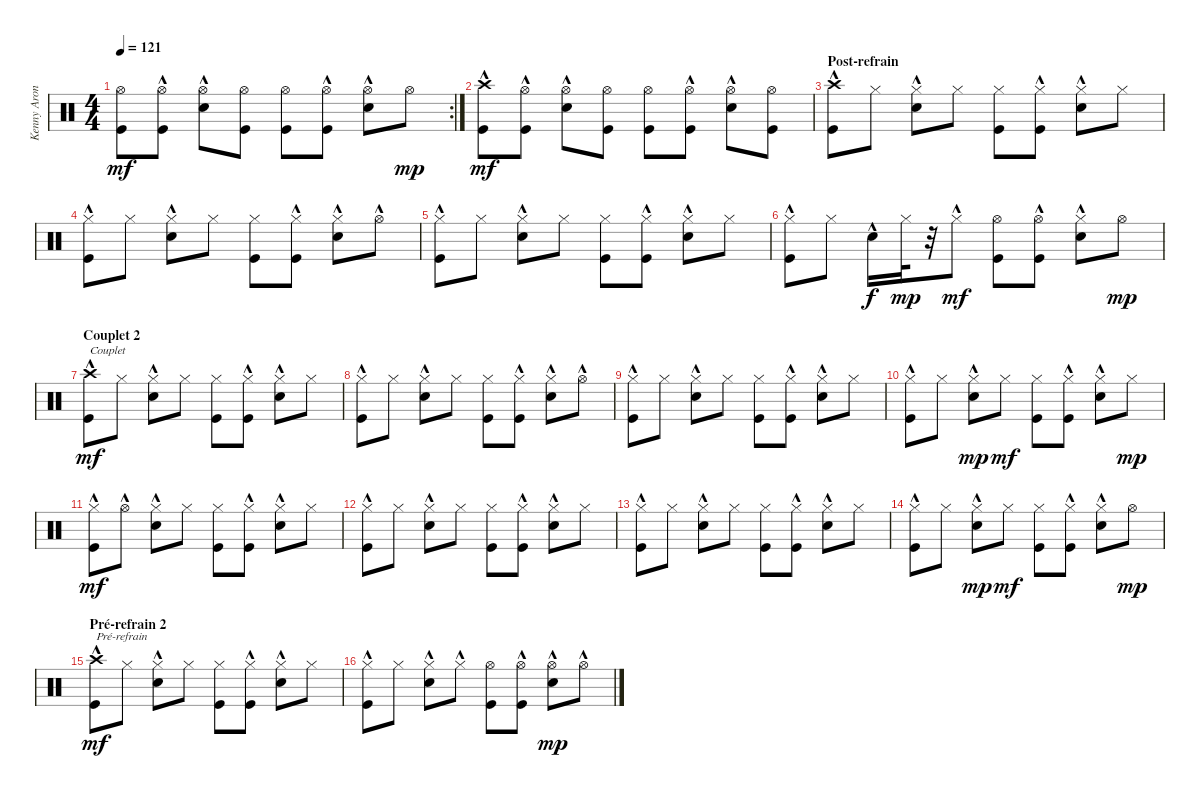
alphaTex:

\track ("Kenny Aronoff - Batterie" "Kenny Aron") {instrument percussion}
\staff {score}
\articulation defaults
\rc 2
\ts (4 4)
\tempo 121
\clef neutral
\ks c
("Kick (hit)" "Hi-Hat (open)").8{dy mf} ("Hi-Hat (open)" "Kick (hit)"{hac}).8 ("Electric Snare (hit)"{hac} "Hi-Hat (open)").8 ("Hi-Hat (open)" "Kick (hit)").8 ("Kick (hit)" "Hi-Hat (open)").8 ("Hi-Hat (open)" "Kick (hit)"{hac}).8 ("Electric Snare (hit)"{hac} "Hi-Hat (open)").8 "Hi-Hat (open)".8{dy mp} |
("Kick (hit)" "Crash high (hit)"{hac}).8{dy mf} ("Hi-Hat (open)" "Kick (hit)"{hac}).8 ("Electric Snare (hit)"{hac} "Hi-Hat (open)").8 ("Hi-Hat (open)" "Kick (hit)").8 ("Kick (hit)" "Hi-Hat (open)").8 ("Hi-Hat (open)" "Kick (hit)"{hac}).8 ("Electric Snare (hit)"{hac} "Hi-Hat (open)").8 ("Hi-Hat (open)" "Kick (hit)").8 |
\section ("" "Post-refrain")
("Kick (hit)"{hac} "Crash high (hit)"{hac}).8 "Hi-Hat (closed)".8 ("Electric Snare (hit)"{hac} "Hi-Hat (closed)").8 "Hi-Hat (closed)".8 ("Kick (hit)" "Hi-Hat (closed)").8 ("Hi-Hat (closed)" "Kick (hit)"{hac}).8 ("Electric Snare (hit)"{hac} "Hi-Hat (closed)").8 "Hi-Hat (closed)".8 |
("Kick (hit)"{hac} "Hi-Hat (closed)").8 "Hi-Hat (closed)".8 ("Electric Snare (hit)"{hac} "Hi-Hat (closed)").8 "Hi-Hat (closed)".8 ("Kick (hit)" "Hi-Hat (closed)").8 ("Hi-Hat (closed)" "Kick (hit)"{hac}).8 ("Electric Snare (hit)"{hac} "Hi-Hat (closed)"{hac}).8 "Hi-Hat (open)"{hac}.8 |
("Kick (hit)"{hac} "Hi-Hat (closed)").8 "Hi-Hat (closed)".8 ("Electric Snare (hit)"{hac} "Hi-Hat (closed)").8 "Hi-Hat (closed)".8 ("Kick (hit)" "Hi-Hat (closed)").8 ("Hi-Hat (closed)" "Kick (hit)"{hac}).8 ("Electric Snare (hit)"{hac} "Hi-Hat (closed)").8 "Hi-Hat (closed)".8 |
("Kick (hit)"{hac} "Hi-Hat (closed)").8 "Hi-Hat (closed)".8 "Electric Snare (hit)"{hac}.16{dy f} "Hi-Hat (closed)".32{dy mp} r.32 "Hi-Hat (closed)"{hac}.8{dy mf} ("Kick (hit)" "Hi-Hat (open)").8 ("Hi-Hat (open)"{hac} "Kick (hit)"{hac}).8 ("Electric Snare (hit)"{hac} "Hi-Hat (closed)"{hac}).8 "Hi-Hat (open)".8{dy mp} |
\section ("" "Couplet 2")
("Kick (hit)"{hac} "Crash high (hit)"{hac}).8{txt "Couplet" dy mf} "Hi-Hat (closed)".8 ("Electric Snare (hit)"{hac} "Hi-Hat (closed)").8 "Hi-Hat (closed)".8 ("Kick (hit)" "Hi-Hat (closed)").8 ("Hi-Hat (closed)" "Kick (hit)"{hac}).8 ("Electric Snare (hit)"{hac} "Hi-Hat (closed)").8 "Hi-Hat (closed)".8 |
("Kick (hit)"{hac} "Hi-Hat (closed)").8 "Hi-Hat (closed)".8 ("Electric Snare (hit)"{hac} "Hi-Hat (closed)").8 "Hi-Hat (closed)".8 ("Kick (hit)" "Hi-Hat (closed)").8 ("Hi-Hat (closed)" "Kick (hit)"{hac}).8 ("Electric Snare (hit)"{hac} "Hi-Hat (closed)"{hac}).8 "Hi-Hat (open)"{hac}.8 |
("Kick (hit)"{hac} "Hi-Hat (closed)").8 "Hi-Hat (closed)".8 ("Electric Snare (hit)"{hac} "Hi-Hat (closed)").8 "Hi-Hat (closed)".8 ("Kick (hit)" "Hi-Hat (closed)").8 ("Hi-Hat (closed)" "Kick (hit)"{hac}).8 ("Electric Snare (hit)"{hac} "Hi-Hat (closed)").8 "Hi-Hat (closed)".8 |
("Kick (hit)"{hac} "Hi-Hat (closed)").8 "Hi-Hat (closed)".8 ("Electric Snare (hit)"{hac} "Hi-Hat (closed)").8{dy mp} "Hi-Hat (closed)".8{dy mf} ("Kick (hit)" "Hi-Hat (closed)").8 ("Hi-Hat (closed)" "Kick (hit)"{hac}).8 ("Electric Snare (hit)"{hac} "Hi-Hat (closed)").8 "Hi-Hat (closed)".8{dy mp} |
("Kick (hit)"{hac} "Hi-Hat (closed)"{hac}).8{dy mf} "Hi-Hat (open)"{hac}.8 ("Electric Snare (hit)"{hac} "Hi-Hat (closed)").8 "Hi-Hat (closed)".8 ("Kick (hit)" "Hi-Hat (closed)").8 ("Hi-Hat (closed)" "Kick (hit)"{hac}).8 ("Electric Snare (hit)"{hac} "Hi-Hat (closed)").8 "Hi-Hat (closed)".8 |
("Kick (hit)"{hac} "Hi-Hat (closed)").8 "Hi-Hat (closed)".8 ("Electric Snare (hit)"{hac} "Hi-Hat (closed)").8 "Hi-Hat (closed)".8 ("Kick (hit)" "Hi-Hat (closed)").8 ("Hi-Hat (closed)" "Kick (hit)"{hac}).8 ("Electric Snare (hit)"{hac} "Hi-Hat (closed)").8 "Hi-Hat (closed)".8 |
("Kick (hit)"{hac} "Hi-Hat (closed)").8 "Hi-Hat (closed)".8 ("Electric Snare (hit)"{hac} "Hi-Hat (closed)").8 "Hi-Hat (closed)".8 ("Kick (hit)" "Hi-Hat (closed)").8 ("Hi-Hat (closed)" "Kick (hit)"{hac}).8 ("Electric Snare (hit)"{hac} "Hi-Hat (closed)").8 "Hi-Hat (closed)".8 |
("Kick (hit)"{hac} "Hi-Hat (closed)").8 "Hi-Hat (closed)".8 ("Electric Snare (hit)"{hac} "Hi-Hat (closed)").8{dy mp} "Hi-Hat (closed)".8{dy mf} ("Kick (hit)" "Hi-Hat (closed)").8 ("Hi-Hat (closed)" "Kick (hit)"{hac}).8 ("Electric Snare (hit)"{hac} "Hi-Hat (closed)"{hac}).8 "Hi-Hat (open)".8{dy mp} |
\section ("" "Pré-refrain 2")
("Kick (hit)"{hac} "Crash high (hit)"{hac}).8{txt "Pré-refrain" dy mf} "Hi-Hat (closed)".8 ("Electric Snare (hit)"{hac} "Hi-Hat (closed)").8 "Hi-Hat (closed)".8 ("Kick (hit)" "Hi-Hat (closed)").8 ("Hi-Hat (closed)" "Kick (hit)"{hac}).8 ("Electric Snare (hit)"{hac} "Hi-Hat (closed)").8 "Hi-Hat (closed)".8 |
("Kick (hit)"{hac} "Hi-Hat (closed)").8 "Hi-Hat (closed)".8 ("Electric Snare (hit)"{hac} "Hi-Hat (closed)").8 "Hi-Hat (closed)"{hac}.8 ("Kick (hit)" "Hi-Hat (open)").8 ("Hi-Hat (open)" "Kick (hit)"{hac}).8 ("Electric Snare (hit)"{hac} "Hi-Hat (open)").8{dy mp} "Hi-Hat (open)"{hac}.8
